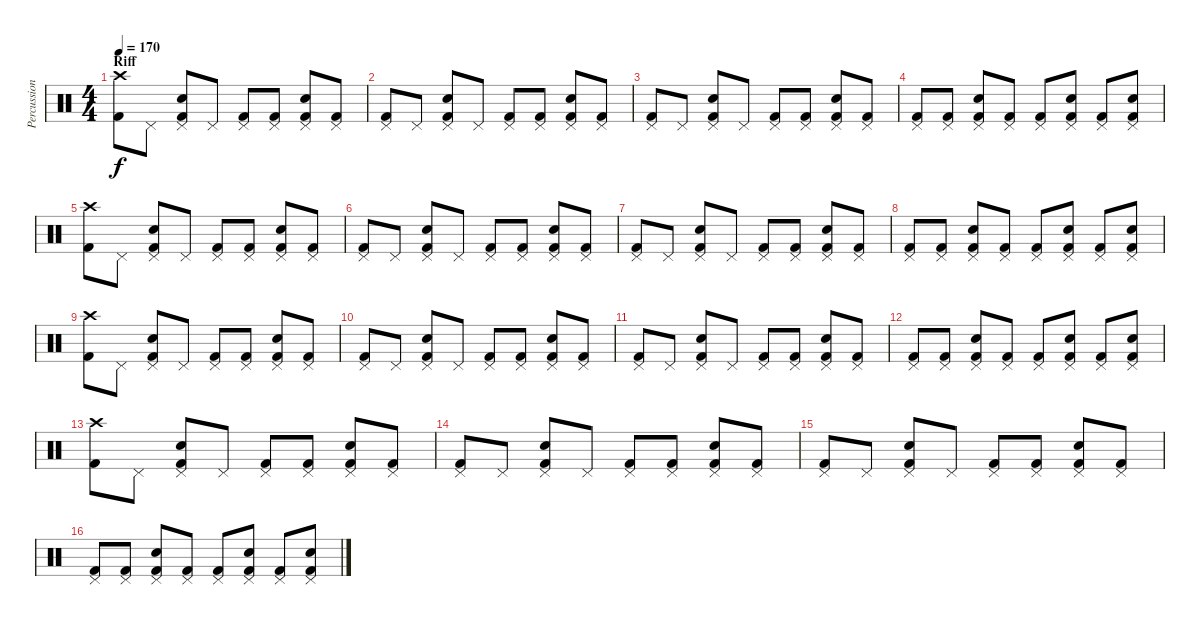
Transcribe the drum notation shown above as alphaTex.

\track ("Percussion" "Percussion") {instrument percussion}
\staff {score}
\articulation defaults
\ts (4 4)
\section ("" "Riff")
\tempo 170
\clef neutral
\ks c
("Crash high (hit)" "Kick (hit) 2").8{dy f} "Pedal Hi-Hat (hit)".8 ("Pedal Hi-Hat (hit)" "Electric Snare (hit)" "Kick (hit) 2").8 "Pedal Hi-Hat (hit)".8 ("Pedal Hi-Hat (hit)" "Kick (hit) 2").8 ("Pedal Hi-Hat (hit)" "Kick (hit) 2").8 ("Pedal Hi-Hat (hit)" "Electric Snare (hit)" "Kick (hit) 2").8 ("Pedal Hi-Hat (hit)" "Kick (hit) 2").8 |
("Pedal Hi-Hat (hit)" "Kick (hit) 2").8 "Pedal Hi-Hat (hit)".8 ("Pedal Hi-Hat (hit)" "Electric Snare (hit)" "Kick (hit) 2").8 "Pedal Hi-Hat (hit)".8 ("Pedal Hi-Hat (hit)" "Kick (hit) 2").8 ("Pedal Hi-Hat (hit)" "Kick (hit) 2").8 ("Pedal Hi-Hat (hit)" "Electric Snare (hit)" "Kick (hit) 2").8 ("Pedal Hi-Hat (hit)" "Kick (hit) 2").8 |
("Pedal Hi-Hat (hit)" "Kick (hit) 2").8 "Pedal Hi-Hat (hit)".8 ("Pedal Hi-Hat (hit)" "Electric Snare (hit)" "Kick (hit) 2").8 "Pedal Hi-Hat (hit)".8 ("Pedal Hi-Hat (hit)" "Kick (hit) 2").8 ("Pedal Hi-Hat (hit)" "Kick (hit) 2").8 ("Pedal Hi-Hat (hit)" "Electric Snare (hit)" "Kick (hit) 2").8 ("Pedal Hi-Hat (hit)" "Kick (hit) 2").8 |
("Pedal Hi-Hat (hit)" "Kick (hit) 2").8 ("Pedal Hi-Hat (hit)" "Kick (hit) 2").8 ("Pedal Hi-Hat (hit)" "Electric Snare (hit)" "Kick (hit) 2").8 ("Pedal Hi-Hat (hit)" "Kick (hit) 2").8 ("Pedal Hi-Hat (hit)" "Kick (hit) 2").8 ("Pedal Hi-Hat (hit)" "Electric Snare (hit)" "Kick (hit) 2").8 ("Pedal Hi-Hat (hit)" "Kick (hit) 2").8 ("Pedal Hi-Hat (hit)" "Electric Snare (hit)" "Kick (hit) 2").8 |
("Crash high (hit)" "Kick (hit) 2").8 "Pedal Hi-Hat (hit)".8 ("Pedal Hi-Hat (hit)" "Electric Snare (hit)" "Kick (hit) 2").8 "Pedal Hi-Hat (hit)".8 ("Pedal Hi-Hat (hit)" "Kick (hit) 2").8 ("Pedal Hi-Hat (hit)" "Kick (hit) 2").8 ("Pedal Hi-Hat (hit)" "Electric Snare (hit)" "Kick (hit) 2").8 ("Pedal Hi-Hat (hit)" "Kick (hit) 2").8 |
("Pedal Hi-Hat (hit)" "Kick (hit) 2").8 "Pedal Hi-Hat (hit)".8 ("Pedal Hi-Hat (hit)" "Electric Snare (hit)" "Kick (hit) 2").8 "Pedal Hi-Hat (hit)".8 ("Pedal Hi-Hat (hit)" "Kick (hit) 2").8 ("Pedal Hi-Hat (hit)" "Kick (hit) 2").8 ("Pedal Hi-Hat (hit)" "Electric Snare (hit)" "Kick (hit) 2").8 ("Pedal Hi-Hat (hit)" "Kick (hit) 2").8 |
("Pedal Hi-Hat (hit)" "Kick (hit) 2").8 "Pedal Hi-Hat (hit)".8 ("Pedal Hi-Hat (hit)" "Electric Snare (hit)" "Kick (hit) 2").8 "Pedal Hi-Hat (hit)".8 ("Pedal Hi-Hat (hit)" "Kick (hit) 2").8 ("Pedal Hi-Hat (hit)" "Kick (hit) 2").8 ("Pedal Hi-Hat (hit)" "Electric Snare (hit)" "Kick (hit) 2").8 ("Pedal Hi-Hat (hit)" "Kick (hit) 2").8 |
("Pedal Hi-Hat (hit)" "Kick (hit) 2").8 ("Pedal Hi-Hat (hit)" "Kick (hit) 2").8 ("Pedal Hi-Hat (hit)" "Electric Snare (hit)" "Kick (hit) 2").8 ("Pedal Hi-Hat (hit)" "Kick (hit) 2").8 ("Pedal Hi-Hat (hit)" "Kick (hit) 2").8 ("Pedal Hi-Hat (hit)" "Electric Snare (hit)" "Kick (hit) 2").8 ("Pedal Hi-Hat (hit)" "Kick (hit) 2").8 ("Pedal Hi-Hat (hit)" "Electric Snare (hit)" "Kick (hit) 2").8 |
\section ("" "")
("Crash high (hit)" "Kick (hit) 2").8 "Pedal Hi-Hat (hit)".8 ("Pedal Hi-Hat (hit)" "Electric Snare (hit)" "Kick (hit) 2").8 "Pedal Hi-Hat (hit)".8 ("Pedal Hi-Hat (hit)" "Kick (hit) 2").8 ("Pedal Hi-Hat (hit)" "Kick (hit) 2").8 ("Pedal Hi-Hat (hit)" "Electric Snare (hit)" "Kick (hit) 2").8 ("Pedal Hi-Hat (hit)" "Kick (hit) 2").8 |
("Pedal Hi-Hat (hit)" "Kick (hit) 2").8 "Pedal Hi-Hat (hit)".8 ("Pedal Hi-Hat (hit)" "Electric Snare (hit)" "Kick (hit) 2").8 "Pedal Hi-Hat (hit)".8 ("Pedal Hi-Hat (hit)" "Kick (hit) 2").8 ("Pedal Hi-Hat (hit)" "Kick (hit) 2").8 ("Pedal Hi-Hat (hit)" "Electric Snare (hit)" "Kick (hit) 2").8 ("Pedal Hi-Hat (hit)" "Kick (hit) 2").8 |
("Pedal Hi-Hat (hit)" "Kick (hit) 2").8 "Pedal Hi-Hat (hit)".8 ("Pedal Hi-Hat (hit)" "Electric Snare (hit)" "Kick (hit) 2").8 "Pedal Hi-Hat (hit)".8 ("Pedal Hi-Hat (hit)" "Kick (hit) 2").8 ("Pedal Hi-Hat (hit)" "Kick (hit) 2").8 ("Pedal Hi-Hat (hit)" "Electric Snare (hit)" "Kick (hit) 2").8 ("Pedal Hi-Hat (hit)" "Kick (hit) 2").8 |
("Pedal Hi-Hat (hit)" "Kick (hit) 2").8 ("Pedal Hi-Hat (hit)" "Kick (hit) 2").8 ("Pedal Hi-Hat (hit)" "Electric Snare (hit)" "Kick (hit) 2").8 ("Pedal Hi-Hat (hit)" "Kick (hit) 2").8 ("Pedal Hi-Hat (hit)" "Kick (hit) 2").8 ("Pedal Hi-Hat (hit)" "Electric Snare (hit)" "Kick (hit) 2").8 ("Pedal Hi-Hat (hit)" "Kick (hit) 2").8 ("Pedal Hi-Hat (hit)" "Electric Snare (hit)" "Kick (hit) 2").8 |
("Crash high (hit)" "Kick (hit) 2").8 "Pedal Hi-Hat (hit)".8 ("Pedal Hi-Hat (hit)" "Electric Snare (hit)" "Kick (hit) 2").8 "Pedal Hi-Hat (hit)".8 ("Pedal Hi-Hat (hit)" "Kick (hit) 2").8 ("Pedal Hi-Hat (hit)" "Kick (hit) 2").8 ("Pedal Hi-Hat (hit)" "Electric Snare (hit)" "Kick (hit) 2").8 ("Pedal Hi-Hat (hit)" "Kick (hit) 2").8 |
("Pedal Hi-Hat (hit)" "Kick (hit) 2").8 "Pedal Hi-Hat (hit)".8 ("Pedal Hi-Hat (hit)" "Electric Snare (hit)" "Kick (hit) 2").8 "Pedal Hi-Hat (hit)".8 ("Pedal Hi-Hat (hit)" "Kick (hit) 2").8 ("Pedal Hi-Hat (hit)" "Kick (hit) 2").8 ("Pedal Hi-Hat (hit)" "Electric Snare (hit)" "Kick (hit) 2").8 ("Pedal Hi-Hat (hit)" "Kick (hit) 2").8 |
("Pedal Hi-Hat (hit)" "Kick (hit) 2").8 "Pedal Hi-Hat (hit)".8 ("Pedal Hi-Hat (hit)" "Electric Snare (hit)" "Kick (hit) 2").8 "Pedal Hi-Hat (hit)".8 ("Pedal Hi-Hat (hit)" "Kick (hit) 2").8 ("Pedal Hi-Hat (hit)" "Kick (hit) 2").8 ("Pedal Hi-Hat (hit)" "Electric Snare (hit)" "Kick (hit) 2").8 ("Pedal Hi-Hat (hit)" "Kick (hit) 2").8 |
("Pedal Hi-Hat (hit)" "Kick (hit) 2").8 ("Pedal Hi-Hat (hit)" "Kick (hit) 2").8 ("Pedal Hi-Hat (hit)" "Electric Snare (hit)" "Kick (hit) 2").8 ("Pedal Hi-Hat (hit)" "Kick (hit) 2").8 ("Pedal Hi-Hat (hit)" "Kick (hit) 2").8 ("Pedal Hi-Hat (hit)" "Electric Snare (hit)" "Kick (hit) 2").8 ("Pedal Hi-Hat (hit)" "Kick (hit) 2").8 ("Pedal Hi-Hat (hit)" "Electric Snare (hit)" "Kick (hit) 2").8
